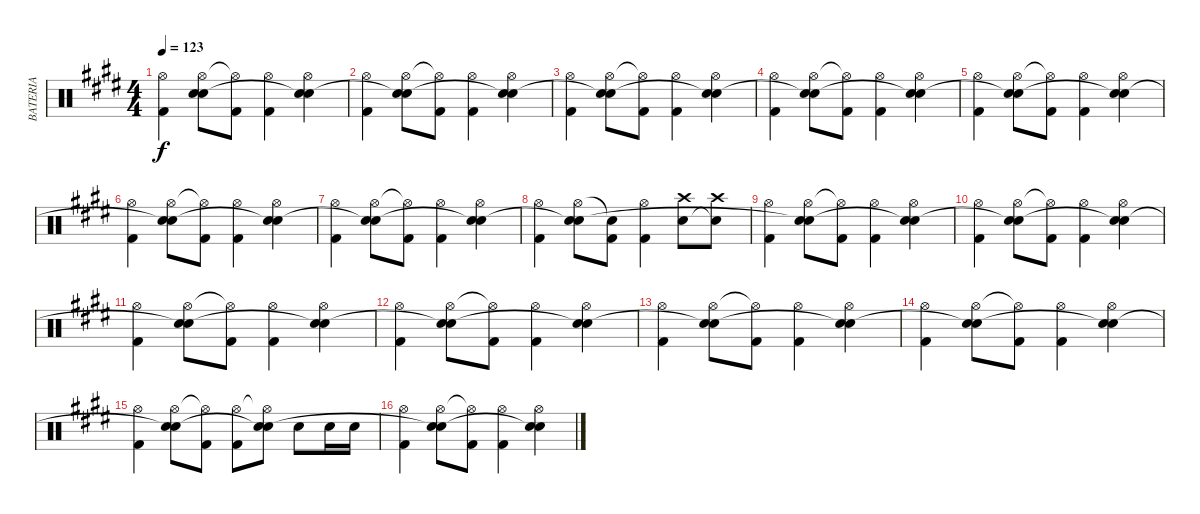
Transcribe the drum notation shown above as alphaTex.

\track ("BATERIA" "BATERIA") {instrument percussion}
\staff {score}
\articulation defaults
\ts (4 4)
\tempo 123
\clef neutral
\ks c#minor
("Hi-Hat (open)" "Kick (hit) 2").4{dy f} ("Hi-Hat (open)" "Snare (hit) 2" "Snare (hit)"{t}).8 ("Hi-Hat (open)"{t} "Kick (hit) 2").8 ("Hi-Hat (open)" "Kick (hit) 2").4 ("Hi-Hat (open)" "Snare (hit) 2" "Snare (hit)"{t}).4 |
("Hi-Hat (open)" "Kick (hit) 2").4 ("Hi-Hat (open)" "Snare (hit) 2" "Snare (hit)"{t}).8 ("Hi-Hat (open)"{t} "Kick (hit) 2").8 ("Hi-Hat (open)" "Kick (hit) 2").4 ("Hi-Hat (open)" "Snare (hit) 2" "Snare (hit)"{t}).4 |
("Hi-Hat (open)" "Kick (hit) 2").4 ("Hi-Hat (open)" "Snare (hit) 2" "Snare (hit)"{t}).8 ("Hi-Hat (open)"{t} "Kick (hit) 2").8 ("Hi-Hat (open)" "Kick (hit) 2").4 ("Hi-Hat (open)" "Snare (hit) 2" "Snare (hit)"{t}).4 |
("Hi-Hat (open)" "Kick (hit) 2").4 ("Hi-Hat (open)" "Snare (hit) 2" "Snare (hit)"{t}).8 ("Hi-Hat (open)"{t} "Kick (hit) 2").8 ("Hi-Hat (open)" "Kick (hit) 2").4 ("Hi-Hat (open)" "Snare (hit) 2" "Snare (hit)"{t}).4 |
("Hi-Hat (open)" "Kick (hit) 2").4 ("Hi-Hat (open)" "Snare (hit) 2" "Snare (hit)"{t}).8 ("Hi-Hat (open)"{t} "Kick (hit) 2").8 ("Hi-Hat (open)" "Kick (hit) 2").4 ("Hi-Hat (open)" "Snare (hit) 2" "Snare (hit)"{t}).4 |
("Hi-Hat (open)" "Kick (hit) 2").4 ("Hi-Hat (open)" "Snare (hit) 2" "Snare (hit)"{t}).8 ("Hi-Hat (open)"{t} "Kick (hit) 2").8 ("Hi-Hat (open)" "Kick (hit) 2").4 ("Hi-Hat (open)" "Snare (hit) 2" "Snare (hit)"{t}).4 |
("Hi-Hat (open)" "Kick (hit) 2").4 ("Hi-Hat (open)" "Snare (hit) 2" "Snare (hit)"{t}).8 ("Hi-Hat (open)"{t} "Kick (hit) 2").8 ("Hi-Hat (open)" "Kick (hit) 2").4 ("Hi-Hat (open)" "Snare (hit) 2" "Snare (hit)"{t}).4 |
("Hi-Hat (open)" "Kick (hit) 2").4 ("Hi-Hat (open)" "Snare (hit) 2" "Snare (hit)"{t}).8 ("Snare (hit)"{t} "Kick (hit) 2").8 ("Hi-Hat (open)" "Kick (hit) 2").4 ("Crash high (hit)" "Snare (hit) 2").8 ("Crash high (hit)" "Snare (hit)"{t}).8 |
("Hi-Hat (open)" "Kick (hit) 2").4 ("Hi-Hat (open)" "Snare (hit) 2" "Snare (hit)"{t}).8 ("Hi-Hat (open)"{t} "Kick (hit) 2").8 ("Hi-Hat (open)" "Kick (hit) 2").4 ("Hi-Hat (open)" "Snare (hit) 2" "Snare (hit)"{t}).4 |
("Hi-Hat (open)" "Kick (hit) 2").4 ("Hi-Hat (open)" "Snare (hit) 2" "Snare (hit)"{t}).8 ("Hi-Hat (open)"{t} "Kick (hit) 2").8 ("Hi-Hat (open)" "Kick (hit) 2").4 ("Hi-Hat (open)" "Snare (hit) 2" "Snare (hit)"{t}).4 |
("Hi-Hat (open)" "Kick (hit) 2").4 ("Hi-Hat (open)" "Snare (hit) 2" "Snare (hit)"{t}).8 ("Hi-Hat (open)"{t} "Kick (hit) 2").8 ("Hi-Hat (open)" "Kick (hit) 2").4 ("Hi-Hat (open)" "Snare (hit) 2" "Snare (hit)"{t}).4 |
("Hi-Hat (open)" "Kick (hit) 2").4 ("Hi-Hat (open)" "Snare (hit) 2" "Snare (hit)"{t}).8 ("Hi-Hat (open)"{t} "Kick (hit) 2").8 ("Hi-Hat (open)" "Kick (hit) 2").4 ("Hi-Hat (open)" "Snare (hit) 2" "Snare (hit)"{t}).4 |
("Hi-Hat (open)" "Kick (hit) 2").4 ("Hi-Hat (open)" "Snare (hit) 2" "Snare (hit)"{t}).8 ("Hi-Hat (open)"{t} "Kick (hit) 2").8 ("Hi-Hat (open)" "Kick (hit) 2").4 ("Hi-Hat (open)" "Snare (hit) 2" "Snare (hit)"{t}).4 |
("Hi-Hat (open)" "Kick (hit) 2").4 ("Hi-Hat (open)" "Snare (hit) 2" "Snare (hit)"{t}).8 ("Hi-Hat (open)"{t} "Kick (hit) 2").8 ("Hi-Hat (open)" "Kick (hit) 2").4 ("Hi-Hat (open)" "Snare (hit) 2" "Snare (hit)"{t}).4 |
("Hi-Hat (open)" "Kick (hit) 2").4 ("Hi-Hat (open)" "Snare (hit) 2" "Snare (hit)"{t}).8 ("Hi-Hat (open)"{t} "Kick (hit) 2").8 ("Hi-Hat (open)" "Kick (hit) 2").8 ("Hi-Hat (open)"{t} "Snare (hit) 2" "Snare (hit)"{t}).8 "Snare (hit) 2".8 "Snare (hit) 2".16 "Snare (hit) 2".16 |
("Hi-Hat (open)" "Kick (hit) 2").4 ("Hi-Hat (open)" "Snare (hit) 2" "Snare (hit)"{t}).8 ("Hi-Hat (open)"{t} "Kick (hit) 2").8 ("Hi-Hat (open)" "Kick (hit) 2").4 ("Hi-Hat (open)" "Snare (hit) 2" "Snare (hit)"{t}).4
